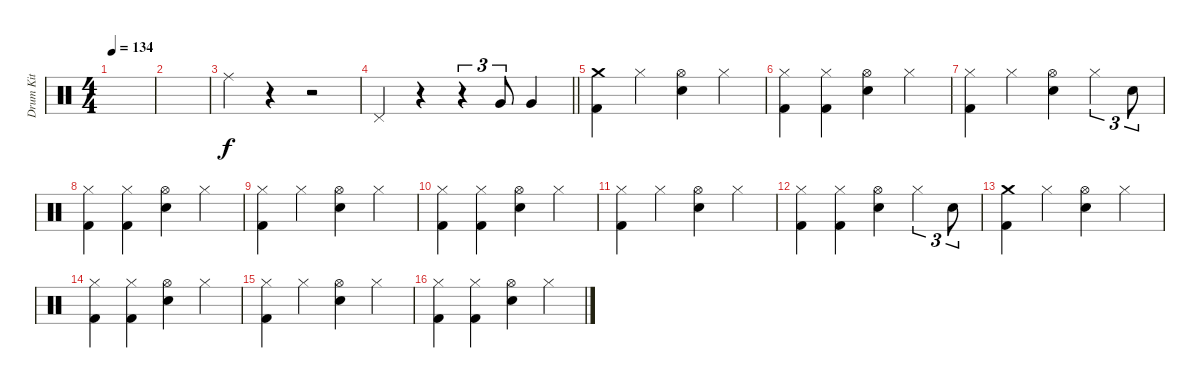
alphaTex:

\track ("Drum Kit" "Drum Kit") {instrument percussion}
\staff {score}
\articulation defaults
\ts (4 4)
\tempo 134
\clef neutral
\ks c
|
|
"Ride (middle)".4 r.4 r.2 |
\barLineRight lightlight "Pedal Hi-Hat (hit)".4
r.4 r.4{tu (3 2)} "Very Low Tom (hit)".8{tu (3 2)} "Very Low Tom (hit)".4 |
("Crash medium (hit)" "Kick (hit) 2").4 "Hi-Hat (closed)".4 ("Hi-Hat (open)" "Snare (hit) 2").4 "Hi-Hat (closed)".4 |
("Hi-Hat (closed)" "Kick (hit) 2").4 ("Hi-Hat (closed)" "Kick (hit) 2").4 ("Hi-Hat (open)" "Snare (hit) 2").4 "Hi-Hat (closed)".4 |
("Hi-Hat (closed)" "Kick (hit) 2").4 "Hi-Hat (closed)".4 ("Hi-Hat (open)" "Snare (hit) 2").4 "Hi-Hat (closed)".4{tu (3 2)} "Snare (hit) 2".8{tu (3 2)} |
("Hi-Hat (closed)" "Kick (hit) 2").4 ("Hi-Hat (closed)" "Kick (hit) 2").4 ("Hi-Hat (open)" "Snare (hit) 2").4 "Hi-Hat (closed)".4 |
("Hi-Hat (closed)" "Kick (hit) 2").4 "Hi-Hat (closed)".4 ("Hi-Hat (open)" "Snare (hit) 2").4 "Hi-Hat (closed)".4 |
("Hi-Hat (closed)" "Kick (hit) 2").4 ("Hi-Hat (closed)" "Kick (hit) 2").4 ("Hi-Hat (open)" "Snare (hit) 2").4 "Hi-Hat (closed)".4 |
("Hi-Hat (closed)" "Kick (hit) 2").4 "Hi-Hat (closed)".4 ("Hi-Hat (open)" "Snare (hit) 2").4 "Hi-Hat (closed)".4 |
("Hi-Hat (closed)" "Kick (hit) 2").4 ("Hi-Hat (closed)" "Kick (hit) 2").4 ("Hi-Hat (open)" "Snare (hit) 2").4 "Hi-Hat (closed)".4{tu (3 2)} "Snare (hit) 2".8{tu (3 2)} |
("Crash medium (hit)" "Kick (hit) 2").4 "Hi-Hat (closed)".4 ("Hi-Hat (open)" "Snare (hit) 2").4 "Hi-Hat (closed)".4 |
("Hi-Hat (closed)" "Kick (hit) 2").4 ("Hi-Hat (closed)" "Kick (hit) 2").4 ("Hi-Hat (open)" "Snare (hit) 2").4 "Hi-Hat (closed)".4 |
("Hi-Hat (closed)" "Kick (hit) 2").4 "Hi-Hat (closed)".4 ("Hi-Hat (open)" "Snare (hit) 2").4 "Hi-Hat (closed)".4 |
("Hi-Hat (closed)" "Kick (hit) 2").4 ("Hi-Hat (closed)" "Kick (hit) 2").4 ("Hi-Hat (open)" "Snare (hit) 2").4 "Hi-Hat (closed)".4
